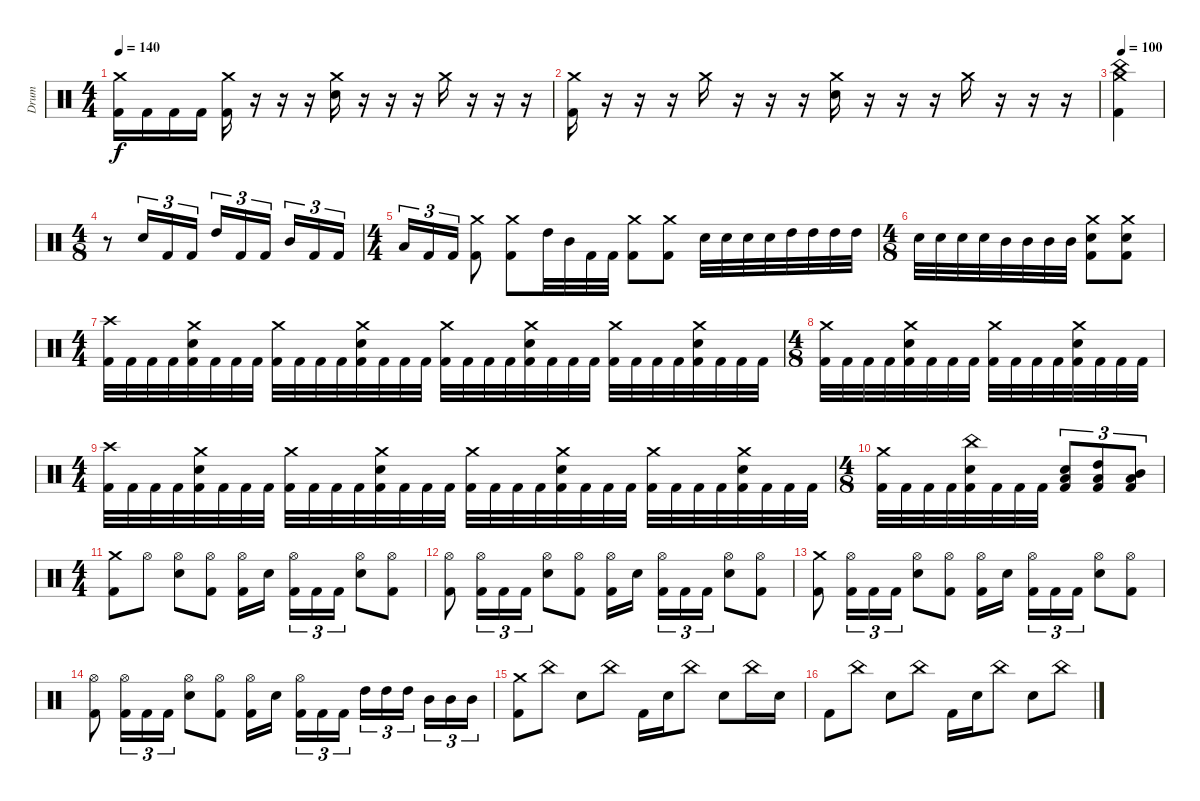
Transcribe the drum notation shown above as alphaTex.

\track ("Drum" "Drum") {instrument percussion}
\staff {score}
\articulation defaults
\ts (4 4)
\tempo 140
\clef neutral
\ks c
("Crash medium (hit)" "Kick (hit) 2").16{dy f} "Kick (hit) 2".16 "Kick (hit) 2".16 "Kick (hit) 2".16 ("Crash medium (hit)" "Kick (hit) 2").16 r.16 r.16 r.16 ("Crash medium (hit)" "Snare (hit) 2").16 r.16 r.16 r.16 "Crash medium (hit)".16 r.16 r.16 r.16 |
("Crash medium (hit)" "Kick (hit) 2").16 r.16 r.16 r.16 "Crash medium (hit)".16 r.16 r.16 r.16 ("Crash medium (hit)" "Snare (hit) 2").16 r.16 r.16 r.16 "Crash medium (hit)".16 r.16 r.16 r.16 |
\tempo 100
("Crash medium (hit)" "China (hit)" "Kick (hit) 2").4 |
\ts (4 8)
r.8 "Snare (hit) 2".16{tu (3 2)} "Kick (hit) 2".16{tu (3 2)} "Kick (hit) 2".16{tu (3 2)} "High Tom (hit)".16{tu (3 2)} "Kick (hit) 2".16{tu (3 2)} "Kick (hit) 2".16{tu (3 2)} "Mid Tom (hit)".16{tu (3 2)} "Kick (hit) 2".16{tu (3 2)} "Kick (hit) 2".16{tu (3 2)} |
\ts (4 4)
"Low Tom (hit)".16{tu (3 2)} "Kick (hit) 2".16{tu (3 2)} "Kick (hit) 2".16{tu (3 2)} ("Crash medium (hit)" "Kick (hit) 2").8 ("Crash medium (hit)" "Kick (hit) 2").8 "High Tom (hit)".32 "Mid Tom (hit)".32 "Kick (hit) 2".32 "Kick (hit) 2".32 ("Crash medium (hit)" "Kick (hit) 2").8 ("Crash medium (hit)" "Kick (hit) 2").8 "Snare (hit) 2".32 "Snare (hit) 2".32 "Snare (hit) 2".32 "Snare (hit) 2".32 "High Tom (hit)".32 "High Tom (hit)".32 "High Tom (hit)".32 "High Tom (hit)".32 |
\ts (4 8)
"Snare (hit) 2".32 "Snare (hit) 2".32 "Snare (hit) 2".32 "Snare (hit) 2".32 "Mid Tom (hit)".32 "Mid Tom (hit)".32 "Mid Tom (hit)".32 "Mid Tom (hit)".32 ("Crash medium (hit)" "Snare (hit) 2" "Kick (hit) 2").8 ("Crash medium (hit)" "Snare (hit) 2" "Kick (hit) 2").8 |
\ts (4 4)
("Crash high (hit)" "Kick (hit) 2").32 "Kick (hit) 2".32 "Kick (hit) 2".32 "Kick (hit) 2".32 ("Crash medium (hit)" "Snare (hit) 2" "Kick (hit) 2").32 "Kick (hit) 2".32 "Kick (hit) 2".32 "Kick (hit) 2".32 ("Crash medium (hit)" "Kick (hit) 2").32 "Kick (hit) 2".32 "Kick (hit) 2".32 "Kick (hit) 2".32 ("Crash medium (hit)" "Snare (hit) 2" "Kick (hit) 2").32 "Kick (hit) 2".32 "Kick (hit) 2".32 "Kick (hit) 2".32 ("Crash medium (hit)" "Kick (hit) 2").32 "Kick (hit) 2".32 "Kick (hit) 2".32 "Kick (hit) 2".32 ("Crash medium (hit)" "Snare (hit) 2" "Kick (hit) 2").32 "Kick (hit) 2".32 "Kick (hit) 2".32 "Kick (hit) 2".32 ("Crash medium (hit)" "Kick (hit) 2").32 "Kick (hit) 2".32 "Kick (hit) 2".32 "Kick (hit) 2".32 ("Crash medium (hit)" "Snare (hit) 2" "Kick (hit) 2").32 "Kick (hit) 2".32 "Kick (hit) 2".32 "Kick (hit) 2".32 |
\ts (4 8)
("Crash medium (hit)" "Kick (hit) 2").32 "Kick (hit) 2".32 "Kick (hit) 2".32 "Kick (hit) 2".32 ("Crash medium (hit)" "Snare (hit) 2" "Kick (hit) 2").32 "Kick (hit) 2".32 "Kick (hit) 2".32 "Kick (hit) 2".32 ("Crash medium (hit)" "Kick (hit) 2").32 "Kick (hit) 2".32 "Kick (hit) 2".32 "Kick (hit) 2".32 ("Crash medium (hit)" "Snare (hit) 2" "Kick (hit) 2").32 "Kick (hit) 2".32 "Kick (hit) 2".32 "Kick (hit) 2".32 |
\ts (4 4)
("Crash high (hit)" "Kick (hit) 2").32 "Kick (hit) 2".32 "Kick (hit) 2".32 "Kick (hit) 2".32 ("Crash medium (hit)" "Snare (hit) 2" "Kick (hit) 2").32 "Kick (hit) 2".32 "Kick (hit) 2".32 "Kick (hit) 2".32 ("Crash medium (hit)" "Kick (hit) 2").32 "Kick (hit) 2".32 "Kick (hit) 2".32 "Kick (hit) 2".32 ("Crash medium (hit)" "Snare (hit) 2" "Kick (hit) 2").32 "Kick (hit) 2".32 "Kick (hit) 2".32 "Kick (hit) 2".32 ("Crash medium (hit)" "Kick (hit) 2").32 "Kick (hit) 2".32 "Kick (hit) 2".32 "Kick (hit) 2".32 ("Crash medium (hit)" "Snare (hit) 2" "Kick (hit) 2").32 "Kick (hit) 2".32 "Kick (hit) 2".32 "Kick (hit) 2".32 ("Crash medium (hit)" "Kick (hit) 2").32 "Kick (hit) 2".32 "Kick (hit) 2".32 "Kick (hit) 2".32 ("Crash medium (hit)" "Snare (hit) 2" "Kick (hit) 2").32 "Kick (hit) 2".32 "Kick (hit) 2".32 "Kick (hit) 2".32 |
\ts (4 8)
("Crash medium (hit)" "Kick (hit) 2").32 "Kick (hit) 2".32 "Kick (hit) 2".32 "Kick (hit) 2".32 ("China (hit)" "Snare (hit) 2" "Kick (hit) 2").32 "Kick (hit) 2".32 "Kick (hit) 2".32 "Kick (hit) 2".32 ("Low Tom (hit)" "Snare (hit) 2" "Kick (hit) 2").8{tu (3 2)} ("High Tom (hit)" "Low Tom (hit)" "Kick (hit) 2").8{tu (3 2)} ("Mid Tom (hit)" "Low Tom (hit)" "Kick (hit) 2").8{tu (3 2)} |
\ts (4 4)
("Crash medium (hit)" "Kick (hit) 2").8 "Hi-Hat (open)".8 ("Hi-Hat (open)" "Snare (hit) 2").8 ("Hi-Hat (open)" "Kick (hit) 2").8 ("Hi-Hat (open)" "Kick (hit) 2").16 "Snare (hit) 2".16{beam splitsecondary} ("Hi-Hat (open)" "Kick (hit) 2").16{tu (3 2)} "Kick (hit) 2".16{tu (3 2)} "Kick (hit) 2".16{tu (3 2)} ("Hi-Hat (open)" "Snare (hit) 2").8 ("Hi-Hat (open)" "Kick (hit) 2").8 |
("Hi-Hat (open)" "Kick (hit) 2").8 ("Hi-Hat (open)" "Kick (hit) 2").16{tu (3 2)} "Kick (hit) 2".16{tu (3 2)} "Kick (hit) 2".16{tu (3 2)} ("Hi-Hat (open)" "Snare (hit) 2").8 ("Hi-Hat (open)" "Kick (hit) 2").8 ("Hi-Hat (open)" "Kick (hit) 2").16 "Snare (hit) 2".16{beam splitsecondary} ("Hi-Hat (open)" "Kick (hit) 2").16{tu (3 2)} "Kick (hit) 2".16{tu (3 2)} "Kick (hit) 2".16{tu (3 2)} ("Hi-Hat (open)" "Snare (hit) 2").8 ("Hi-Hat (open)" "Kick (hit) 2").8 |
("Crash medium (hit)" "Kick (hit) 2").8 ("Hi-Hat (open)" "Kick (hit) 2").16{tu (3 2)} "Kick (hit) 2".16{tu (3 2)} "Kick (hit) 2".16{tu (3 2)} ("Hi-Hat (open)" "Snare (hit) 2").8 ("Hi-Hat (open)" "Kick (hit) 2").8 ("Hi-Hat (open)" "Kick (hit) 2").16 "Snare (hit) 2".16{beam splitsecondary} ("Hi-Hat (open)" "Kick (hit) 2").16{tu (3 2)} "Kick (hit) 2".16{tu (3 2)} "Kick (hit) 2".16{tu (3 2)} ("Hi-Hat (open)" "Snare (hit) 2").8 ("Hi-Hat (open)" "Kick (hit) 2").8 |
("Hi-Hat (open)" "Kick (hit) 2").8 ("Hi-Hat (open)" "Kick (hit) 2").16{tu (3 2)} "Kick (hit) 2".16{tu (3 2)} "Kick (hit) 2".16{tu (3 2)} ("Hi-Hat (open)" "Snare (hit) 2").8 ("Hi-Hat (open)" "Kick (hit) 2").8 ("Hi-Hat (open)" "Kick (hit) 2").16 "Snare (hit) 2".16{beam splitsecondary} ("Hi-Hat (open)" "Kick (hit) 2").16{tu (3 2)} "Kick (hit) 2".16{tu (3 2)} "Kick (hit) 2".16{tu (3 2)} "High Tom (hit)".16{tu (3 2)} "High Tom (hit)".16{tu (3 2)} "High Tom (hit)".16{tu (3 2) beam splitsecondary} "Mid Tom (hit)".16{tu (3 2)} "Mid Tom (hit)".16{tu (3 2)} "Mid Tom (hit)".16{tu (3 2)} |
("Crash medium (hit)" "Kick (hit) 2").8 "China (hit)".8 "Snare (hit) 2".8 "China (hit)".8 "Kick (hit) 2".16 "Snare (hit) 2".16 "China (hit)".8 "Snare (hit) 2".8 "China (hit)".16 "Snare (hit) 2".16 |
"Kick (hit) 2".8 "China (hit)".8 "Snare (hit) 2".8 "China (hit)".8 "Kick (hit) 2".16 "Snare (hit) 2".16 "China (hit)".8 "Snare (hit) 2".8 "China (hit)".8
